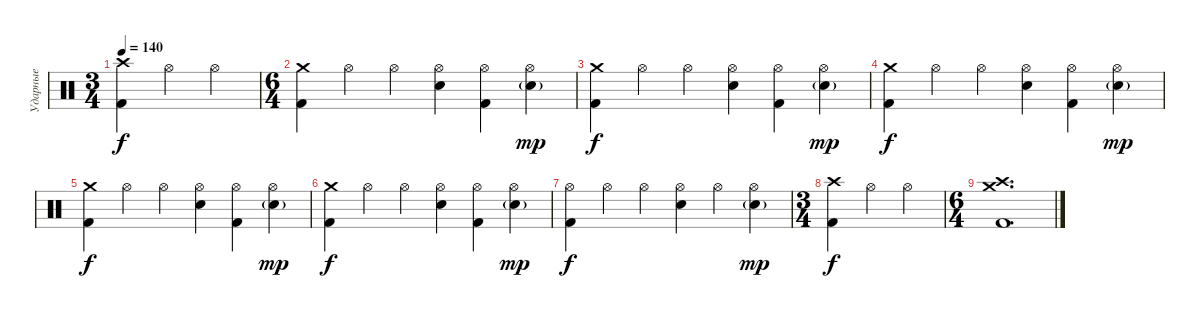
\track ("Ударные" "Ударные") {instrument percussion}
\staff {score}
\articulation defaults
\ts (3 4)
\tempo 140
\clef neutral
\ks c
("Crash high (hit)" "Kick (hit) 2").4{dy f} "Hi-Hat (open)".4 "Hi-Hat (open)".4 |
\ts (6 4)
("Crash medium (hit)" "Kick (hit) 2").4 "Hi-Hat (open)".4 "Hi-Hat (open)".4 ("Hi-Hat (open)" "Electric Snare (hit)").4 ("Hi-Hat (open)" "Kick (hit) 2").4 ("Hi-Hat (open)" "Electric Snare (hit)"{g}).4{dy mp} |
("Crash medium (hit)" "Kick (hit) 2").4{dy f} "Hi-Hat (open)".4 "Hi-Hat (open)".4 ("Hi-Hat (open)" "Electric Snare (hit)").4 ("Hi-Hat (open)" "Kick (hit) 2").4 ("Hi-Hat (open)" "Electric Snare (hit)"{g}).4{dy mp} |
("Crash medium (hit)" "Kick (hit) 2").4{dy f} "Hi-Hat (open)".4 "Hi-Hat (open)".4 ("Hi-Hat (open)" "Electric Snare (hit)").4 ("Hi-Hat (open)" "Kick (hit) 2").4 ("Hi-Hat (open)" "Electric Snare (hit)"{g}).4{dy mp} |
("Crash medium (hit)" "Kick (hit) 2").4{dy f} "Hi-Hat (open)".4 "Hi-Hat (open)".4 ("Hi-Hat (open)" "Electric Snare (hit)").4 ("Hi-Hat (open)" "Kick (hit) 2").4 ("Hi-Hat (open)" "Electric Snare (hit)"{g}).4{dy mp} |
("Crash medium (hit)" "Kick (hit) 2").4{dy f} "Hi-Hat (open)".4 "Hi-Hat (open)".4 ("Hi-Hat (open)" "Electric Snare (hit)").4 ("Hi-Hat (open)" "Kick (hit) 2").4 ("Hi-Hat (open)" "Electric Snare (hit)"{g}).4{dy mp} |
("Hi-Hat (open)" "Kick (hit) 2").4{dy f} "Hi-Hat (open)".4 "Hi-Hat (open)".4 ("Hi-Hat (open)" "Electric Snare (hit)").4 "Hi-Hat (open)".4 ("Hi-Hat (open)" "Electric Snare (hit)"{g}).4{dy mp} |
\ts (3 4)
("Crash high (hit)" "Kick (hit) 2").4{dy f} "Hi-Hat (open)".4 "Hi-Hat (open)".4 |
\ts (6 4)
("Crash medium (hit)" "Crash high (hit)" "Kick (hit) 2").1{d}
